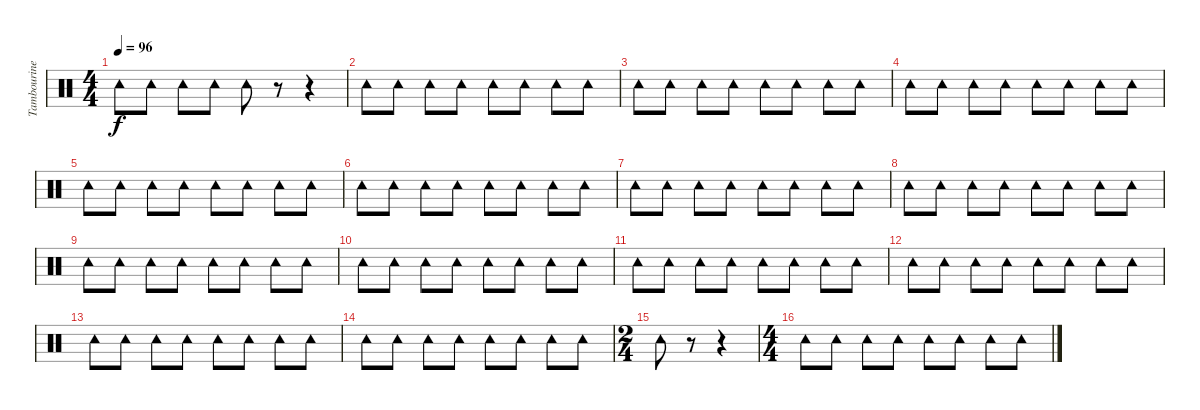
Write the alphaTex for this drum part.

\track ("Tambourine" "Tambourine") {instrument percussion}
\staff {score}
\articulation defaults
\ts (4 4)
\tempo 96
\clef neutral
\ks c "Tambourine (hit)".8{dy f} "Tambourine (hit)".8 "Tambourine (hit)".8 "Tambourine (hit)".8 "Tambourine (hit)".8
r.8 r.4 |
"Tambourine (hit)".8 "Tambourine (hit)".8 "Tambourine (hit)".8 "Tambourine (hit)".8 "Tambourine (hit)".8 "Tambourine (hit)".8 "Tambourine (hit)".8 "Tambourine (hit)".8 |
"Tambourine (hit)".8 "Tambourine (hit)".8 "Tambourine (hit)".8 "Tambourine (hit)".8 "Tambourine (hit)".8 "Tambourine (hit)".8 "Tambourine (hit)".8 "Tambourine (hit)".8 |
"Tambourine (hit)".8 "Tambourine (hit)".8 "Tambourine (hit)".8 "Tambourine (hit)".8 "Tambourine (hit)".8 "Tambourine (hit)".8 "Tambourine (hit)".8 "Tambourine (hit)".8 |
"Tambourine (hit)".8 "Tambourine (hit)".8 "Tambourine (hit)".8 "Tambourine (hit)".8 "Tambourine (hit)".8 "Tambourine (hit)".8 "Tambourine (hit)".8 "Tambourine (hit)".8 |
"Tambourine (hit)".8 "Tambourine (hit)".8 "Tambourine (hit)".8 "Tambourine (hit)".8 "Tambourine (hit)".8 "Tambourine (hit)".8 "Tambourine (hit)".8 "Tambourine (hit)".8 |
"Tambourine (hit)".8 "Tambourine (hit)".8 "Tambourine (hit)".8 "Tambourine (hit)".8 "Tambourine (hit)".8 "Tambourine (hit)".8 "Tambourine (hit)".8 "Tambourine (hit)".8 |
"Tambourine (hit)".8 "Tambourine (hit)".8 "Tambourine (hit)".8 "Tambourine (hit)".8 "Tambourine (hit)".8 "Tambourine (hit)".8 "Tambourine (hit)".8 "Tambourine (hit)".8 |
"Tambourine (hit)".8 "Tambourine (hit)".8 "Tambourine (hit)".8 "Tambourine (hit)".8 "Tambourine (hit)".8 "Tambourine (hit)".8 "Tambourine (hit)".8 "Tambourine (hit)".8 |
"Tambourine (hit)".8 "Tambourine (hit)".8 "Tambourine (hit)".8 "Tambourine (hit)".8 "Tambourine (hit)".8 "Tambourine (hit)".8 "Tambourine (hit)".8 "Tambourine (hit)".8 |
"Tambourine (hit)".8 "Tambourine (hit)".8 "Tambourine (hit)".8 "Tambourine (hit)".8 "Tambourine (hit)".8 "Tambourine (hit)".8 "Tambourine (hit)".8 "Tambourine (hit)".8 |
"Tambourine (hit)".8 "Tambourine (hit)".8 "Tambourine (hit)".8 "Tambourine (hit)".8 "Tambourine (hit)".8 "Tambourine (hit)".8 "Tambourine (hit)".8 "Tambourine (hit)".8 |
"Tambourine (hit)".8 "Tambourine (hit)".8 "Tambourine (hit)".8 "Tambourine (hit)".8 "Tambourine (hit)".8 "Tambourine (hit)".8 "Tambourine (hit)".8 "Tambourine (hit)".8 |
"Tambourine (hit)".8 "Tambourine (hit)".8 "Tambourine (hit)".8 "Tambourine (hit)".8 "Tambourine (hit)".8 "Tambourine (hit)".8 "Tambourine (hit)".8 "Tambourine (hit)".8 |
\ts (2 4)
"Tambourine (hit)".8 r.8 r.4 |
\ts (4 4)
"Tambourine (hit)".8 "Tambourine (hit)".8 "Tambourine (hit)".8 "Tambourine (hit)".8 "Tambourine (hit)".8 "Tambourine (hit)".8 "Tambourine (hit)".8 "Tambourine (hit)".8
